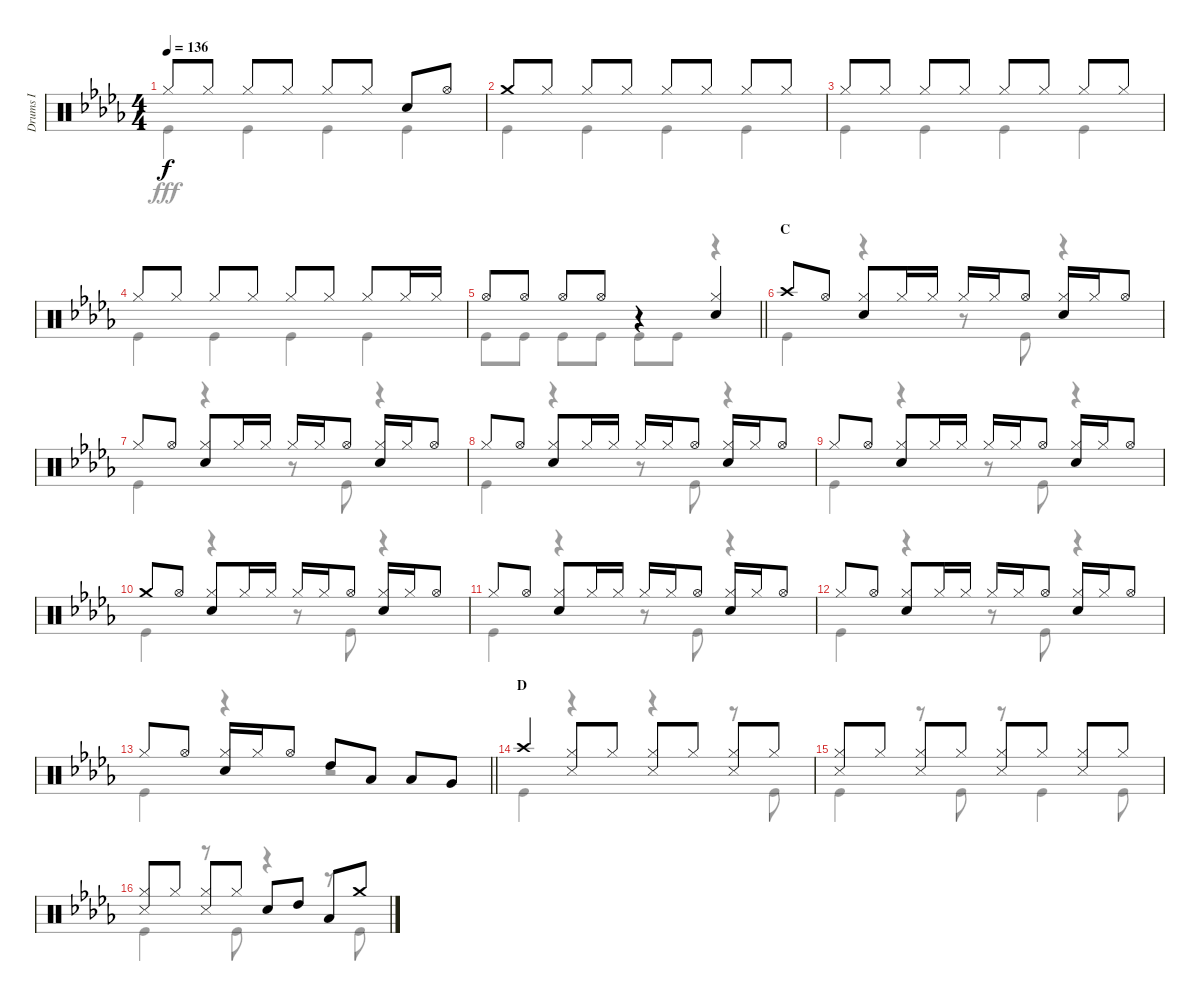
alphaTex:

\track ("Drums I" "Drums I") {instrument percussion}
\staff {score}
\articulation defaults
\voice
\ts (4 4)
\tempo 136
\clef neutral
\ks db "Hi-Hat (closed)".8{dy f} "Hi-Hat (closed)".8 "Hi-Hat (closed)".8 "Hi-Hat (closed)".8 "Hi-Hat (closed)".8 "Hi-Hat (closed)".8 "Snare (hit) 2".8 "Hi-Hat (open)".8
|
"Crash medium (hit)".8 "Hi-Hat (closed)".8 "Hi-Hat (closed)".8 "Hi-Hat (closed)".8 "Hi-Hat (closed)".8 "Hi-Hat (closed)".8 "Hi-Hat (closed)".8 "Hi-Hat (closed)".8 |
"Hi-Hat (closed)".8 "Hi-Hat (closed)".8 "Hi-Hat (closed)".8 "Hi-Hat (closed)".8 "Hi-Hat (closed)".8 "Hi-Hat (closed)".8 "Hi-Hat (closed)".8 "Hi-Hat (closed)".8 |
"Hi-Hat (closed)".8 "Hi-Hat (closed)".8 "Hi-Hat (closed)".8 "Hi-Hat (closed)".8 "Hi-Hat (closed)".8 "Hi-Hat (closed)".8 "Hi-Hat (closed)".8 "Hi-Hat (closed)".16 "Hi-Hat (closed)".16 |
\barLineRight lightlight "Hi-Hat (open)".8 "Hi-Hat (open)".8 "Hi-Hat (open)".8 "Hi-Hat (open)".8
r.4 ("Hi-Hat (closed)" "Snare (hit) 2").4 |
\section ("" "C")
"Crash high (hit)".8 "Hi-Hat (open)".8 ("Hi-Hat (closed)" "Snare (hit) 2").8 "Hi-Hat (closed)".16 "Hi-Hat (closed)".16 "Hi-Hat (closed)".16 "Hi-Hat (closed)".16 "Hi-Hat (open)".8 ("Hi-Hat (closed)" "Snare (hit) 2").16 "Hi-Hat (closed)".16 "Hi-Hat (open)".8 |
"Hi-Hat (closed)".8 "Hi-Hat (open)".8 ("Hi-Hat (closed)" "Snare (hit) 2").8 "Hi-Hat (closed)".16 "Hi-Hat (closed)".16 "Hi-Hat (closed)".16 "Hi-Hat (closed)".16 "Hi-Hat (open)".8 ("Hi-Hat (closed)" "Snare (hit) 2").16 "Hi-Hat (closed)".16 "Hi-Hat (open)".8 |
"Hi-Hat (closed)".8 "Hi-Hat (open)".8 ("Hi-Hat (closed)" "Snare (hit) 2").8 "Hi-Hat (closed)".16 "Hi-Hat (closed)".16 "Hi-Hat (closed)".16 "Hi-Hat (closed)".16 "Hi-Hat (open)".8 ("Hi-Hat (closed)" "Snare (hit) 2").16 "Hi-Hat (closed)".16 "Hi-Hat (open)".8 |
"Hi-Hat (closed)".8 "Hi-Hat (open)".8 ("Hi-Hat (closed)" "Snare (hit) 2").8 "Hi-Hat (closed)".16 "Hi-Hat (closed)".16 "Hi-Hat (closed)".16 "Hi-Hat (closed)".16 "Hi-Hat (open)".8 ("Hi-Hat (closed)" "Snare (hit) 2").16 "Hi-Hat (closed)".16 "Hi-Hat (open)".8 |
"Crash medium (hit)".8 "Hi-Hat (open)".8 ("Hi-Hat (closed)" "Snare (hit) 2").8 "Hi-Hat (closed)".16 "Hi-Hat (closed)".16 "Hi-Hat (closed)".16 "Hi-Hat (closed)".16 "Hi-Hat (open)".8 ("Hi-Hat (closed)" "Snare (hit) 2").16 "Hi-Hat (closed)".16 "Hi-Hat (open)".8 |
"Hi-Hat (closed)".8 "Hi-Hat (open)".8 ("Hi-Hat (closed)" "Snare (hit) 2").8 "Hi-Hat (closed)".16 "Hi-Hat (closed)".16 "Hi-Hat (closed)".16 "Hi-Hat (closed)".16 "Hi-Hat (open)".8 ("Hi-Hat (closed)" "Snare (hit) 2").16 "Hi-Hat (closed)".16 "Hi-Hat (open)".8 |
"Hi-Hat (closed)".8 "Hi-Hat (open)".8 ("Hi-Hat (closed)" "Snare (hit) 2").8 "Hi-Hat (closed)".16 "Hi-Hat (closed)".16 "Hi-Hat (closed)".16 "Hi-Hat (closed)".16 "Hi-Hat (open)".8 ("Hi-Hat (closed)" "Snare (hit) 2").16 "Hi-Hat (closed)".16 "Hi-Hat (open)".8 |
\barLineRight lightlight "Hi-Hat (closed)".8 "Hi-Hat (open)".8
("Hi-Hat (closed)" "Snare (hit) 2").16 "Hi-Hat (closed)".16 "Hi-Hat (open)".8 "High Tom (hit)".8 "Low Tom (hit)".8 "Low Tom (hit)".8 "Very Low Tom (hit)".8 |
\section ("" "D")
"Crash high (hit)".4 ("Hi-Hat (closed)" "Snare (side stick) 3").8 "Hi-Hat (closed)".8 ("Hi-Hat (closed)" "Snare (side stick) 3").8 "Hi-Hat (closed)".8 ("Hi-Hat (closed)" "Snare (side stick) 3").8 "Hi-Hat (closed)".8 |
("Hi-Hat (closed)" "Snare (side stick) 3").8 "Hi-Hat (closed)".8 ("Hi-Hat (closed)" "Snare (side stick) 3").8 "Hi-Hat (closed)".8 ("Hi-Hat (closed)" "Snare (side stick) 3").8 "Hi-Hat (closed)".8 ("Hi-Hat (closed)" "Snare (side stick) 3").8 "Hi-Hat (closed)".8 |
("Hi-Hat (closed)" "Snare (side stick) 3").8 "Hi-Hat (closed)".8 ("Hi-Hat (closed)" "Snare (side stick) 3").8 "Hi-Hat (closed)".8 "Snare (hit) 2".8 "High Tom (hit)".8 "Low Tom (hit)".8 "Crash medium (hit)".8
\voice
\clef neutral
\ottava regular
\simile none
\ks db "Kick (hit)".4{dy fff} "Kick (hit)".4 "Kick (hit)".4 "Kick (hit)".4
|
"Kick (hit)".4 "Kick (hit)".4 "Kick (hit)".4 "Kick (hit)".4 |
"Kick (hit)".4 "Kick (hit)".4 "Kick (hit)".4 "Kick (hit)".4 |
"Kick (hit)".4 "Kick (hit)".4 "Kick (hit)".4 "Kick (hit)".4 |
\barLineRight lightlight "Kick (hit)".8 "Kick (hit)".8 "Kick (hit)".8 "Kick (hit)".8 "Kick (hit)".8 "Kick (hit)".8
r.4 |
"Kick (hit)".4 r.4 r.8 "Kick (hit)".8 r.4 |
"Kick (hit)".4 r.4 r.8 "Kick (hit)".8 r.4 |
"Kick (hit)".4 r.4 r.8 "Kick (hit)".8 r.4 |
"Kick (hit)".4 r.4 r.8 "Kick (hit)".8 r.4 |
"Kick (hit)".4 r.4 r.8 "Kick (hit)".8 r.4 |
"Kick (hit)".4 r.4 r.8 "Kick (hit)".8 r.4 |
"Kick (hit)".4 r.4 r.8 "Kick (hit)".8 r.4 |
\barLineRight lightlight "Kick (hit)".4
r.4 r.2 |
"Kick (hit)".4 r.4 r.4 r.8 "Kick (hit)".8 |
"Kick (hit)".4 r.8 "Kick (hit)".8 r.8 "Kick (hit)".4 "Kick (hit)".8 |
"Kick (hit)".4 r.8 "Kick (hit)".8 r.4 r.8 "Kick (hit)".8
